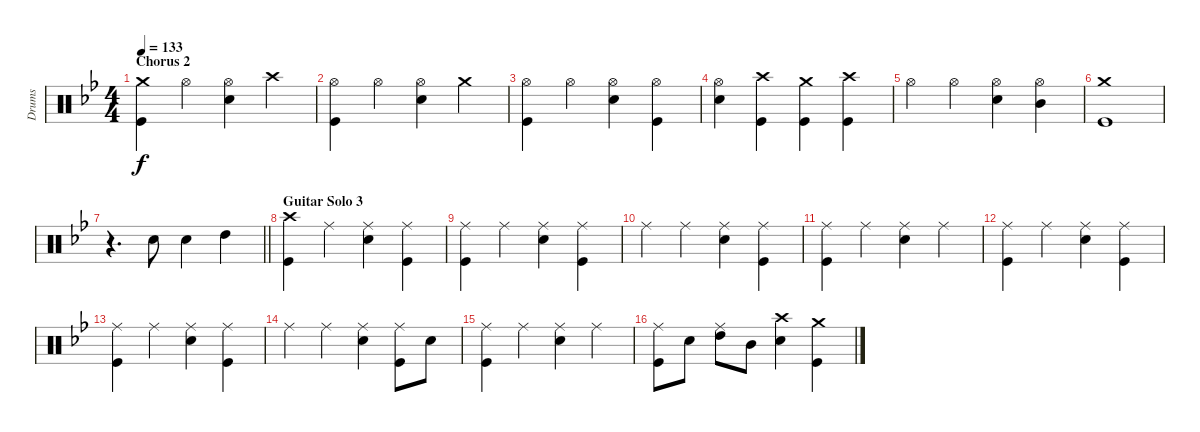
\track ("Drums" "Drums") {instrument percussion}
\staff {score}
\articulation defaults
\ts (4 4)
\section ("" "Chorus 2")
\tempo 133
\clef neutral
\ks bb
("Crash medium (hit)" "Kick (hit)").4{dy f} "Hi-Hat (open)".4 ("Hi-Hat (open)" "Snare (hit) 2").4 "Crash high (hit)".4 |
("Hi-Hat (open)" "Kick (hit)").4 "Hi-Hat (open)".4 ("Hi-Hat (open)" "Snare (hit) 2").4 "Crash medium (hit)".4 |
("Hi-Hat (open)" "Kick (hit)").4 "Hi-Hat (open)".4 ("Hi-Hat (open)" "Snare (hit) 2").4 ("Hi-Hat (open)" "Kick (hit)").4 |
("Hi-Hat (open)" "Snare (hit) 2").4 ("Crash high (hit)" "Kick (hit)").4 ("Crash medium (hit)" "Kick (hit)").4 ("Crash high (hit)" "Kick (hit)").4 |
"Hi-Hat (open)".4 "Hi-Hat (open)".4 ("Hi-Hat (open)" "Snare (hit) 2").4 ("Hi-Hat (open)" "Mid Tom (hit)").4 |
("Crash medium (hit)" "Kick (hit)").1 |
\barLineRight lightlight
r.4{d} "Snare (hit) 2".8 "Snare (hit) 2".4 "High Tom (hit)".4 |
\section ("" "Guitar Solo 3")
("Crash high (hit)" "Kick (hit)").4 "Ride (middle)".4 ("Ride (middle)" "Snare (hit) 2").4 ("Ride (middle)" "Kick (hit)").4 |
("Ride (middle)" "Kick (hit)").4 "Ride (middle)".4 ("Ride (middle)" "Snare (hit) 2").4 ("Ride (middle)" "Kick (hit)").4 |
"Ride (middle)".4 "Ride (middle)".4 ("Ride (middle)" "Snare (hit) 2").4 ("Ride (middle)" "Kick (hit)").4 |
("Ride (middle)" "Kick (hit)").4 "Ride (middle)".4 ("Ride (middle)" "Snare (hit) 2").4 "Ride (middle)".4 |
("Ride (middle)" "Kick (hit)").4 "Ride (middle)".4 ("Ride (middle)" "Snare (hit) 2").4 ("Ride (middle)" "Kick (hit)").4 |
("Ride (middle)" "Kick (hit)").4 "Ride (middle)".4 ("Ride (middle)" "Snare (hit) 2").4 ("Ride (middle)" "Kick (hit)").4 |
"Ride (middle)".4 "Ride (middle)".4 ("Ride (middle)" "Snare (hit) 2").4 ("Ride (middle)" "Kick (hit)").8 "Snare (hit) 2".8 |
("Ride (middle)" "Kick (hit)").4 "Ride (middle)".4 ("Ride (middle)" "Snare (hit) 2").4 "Ride (middle)".4 |
("Ride (middle)" "Kick (hit)").8 "Snare (hit) 2".8 ("Ride (middle)" "High Tom (hit)").8 "Mid Tom (hit)".8 ("Crash high (hit)" "Snare (hit) 2").4 ("Crash medium (hit)" "Kick (hit)").4
